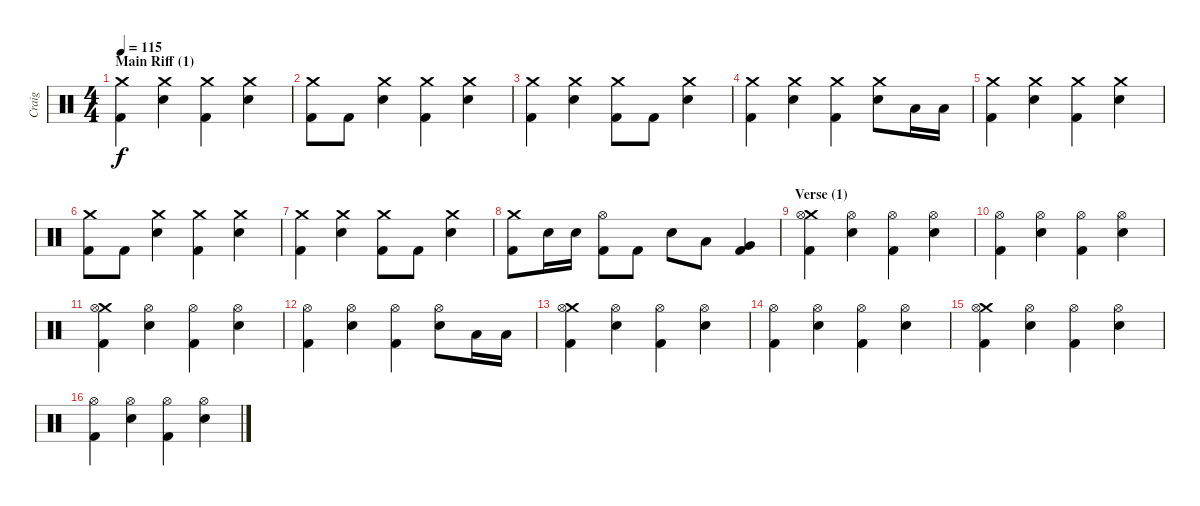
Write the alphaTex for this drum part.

\track ("Craig" "Craig") {instrument percussion}
\staff {score}
\articulation defaults
\ts (4 4)
\section ("" "Main Riff (1)")
\tempo 115
\clef neutral
\ks c
("Crash medium (hit)" "Kick (hit) 2").4{dy f} ("Crash medium (hit)" "Electric Snare (hit)").4 ("Crash medium (hit)" "Kick (hit) 2").4 ("Crash medium (hit)" "Electric Snare (hit)").4 |
("Crash medium (hit)" "Kick (hit) 2").8 "Kick (hit) 2".8 ("Crash medium (hit)" "Electric Snare (hit)").4 ("Crash medium (hit)" "Kick (hit) 2").4 ("Crash medium (hit)" "Electric Snare (hit)").4 |
("Crash medium (hit)" "Kick (hit) 2").4 ("Crash medium (hit)" "Electric Snare (hit)").4 ("Crash medium (hit)" "Kick (hit) 2").8 "Kick (hit) 2".8 ("Crash medium (hit)" "Electric Snare (hit)").4 |
("Crash medium (hit)" "Kick (hit) 2").4 ("Crash medium (hit)" "Electric Snare (hit)").4 ("Crash medium (hit)" "Kick (hit) 2").4 ("Crash medium (hit)" "Electric Snare (hit)").8 "Low Floor Tom (hit)".16 "Low Floor Tom (hit)".16 |
("Crash medium (hit)" "Kick (hit) 2").4 ("Crash medium (hit)" "Electric Snare (hit)").4 ("Crash medium (hit)" "Kick (hit) 2").4 ("Crash medium (hit)" "Electric Snare (hit)").4 |
("Crash medium (hit)" "Kick (hit) 2").8 "Kick (hit) 2".8 ("Crash medium (hit)" "Electric Snare (hit)").4 ("Crash medium (hit)" "Kick (hit) 2").4 ("Crash medium (hit)" "Electric Snare (hit)").4 |
("Crash medium (hit)" "Kick (hit) 2").4 ("Crash medium (hit)" "Electric Snare (hit)").4 ("Crash medium (hit)" "Kick (hit) 2").8 "Kick (hit) 2".8 ("Crash medium (hit)" "Electric Snare (hit)").4 |
("Crash medium (hit)" "Kick (hit) 2").8 "Electric Snare (hit)".16 "Electric Snare (hit)".16 ("Hi-Hat (open)" "Kick (hit) 2").8 "Kick (hit) 2".8 "Electric Snare (hit)".8 "Low Tom (hit)".8 ("Very Low Tom (hit)" "Kick (hit) 2").4 |
\section ("" "Verse (1)")
("Crash medium (hit)" "Hi-Hat (open)" "Kick (hit) 2").4 ("Hi-Hat (open)" "Electric Snare (hit)").4 ("Hi-Hat (open)" "Kick (hit) 2").4 ("Hi-Hat (open)" "Electric Snare (hit)").4 |
("Hi-Hat (open)" "Kick (hit) 2").4 ("Hi-Hat (open)" "Electric Snare (hit)").4 ("Hi-Hat (open)" "Kick (hit) 2").4 ("Hi-Hat (open)" "Electric Snare (hit)").4 |
("Crash medium (hit)" "Hi-Hat (open)" "Kick (hit) 2").4 ("Hi-Hat (open)" "Electric Snare (hit)").4 ("Hi-Hat (open)" "Kick (hit) 2").4 ("Hi-Hat (open)" "Electric Snare (hit)").4 |
("Hi-Hat (open)" "Kick (hit) 2").4 ("Hi-Hat (open)" "Electric Snare (hit)").4 ("Hi-Hat (open)" "Kick (hit) 2").4 ("Hi-Hat (open)" "Electric Snare (hit)").8 "Low Floor Tom (hit)".16 "Low Floor Tom (hit)".16 |
("Crash medium (hit)" "Hi-Hat (open)" "Kick (hit) 2").4 ("Hi-Hat (open)" "Electric Snare (hit)").4 ("Hi-Hat (open)" "Kick (hit) 2").4 ("Hi-Hat (open)" "Electric Snare (hit)").4 |
("Hi-Hat (open)" "Kick (hit) 2").4 ("Hi-Hat (open)" "Electric Snare (hit)").4 ("Hi-Hat (open)" "Kick (hit) 2").4 ("Hi-Hat (open)" "Electric Snare (hit)").4 |
("Crash medium (hit)" "Hi-Hat (open)" "Kick (hit) 2").4 ("Hi-Hat (open)" "Electric Snare (hit)").4 ("Hi-Hat (open)" "Kick (hit) 2").4 ("Hi-Hat (open)" "Electric Snare (hit)").4 |
("Hi-Hat (open)" "Kick (hit) 2").4 ("Hi-Hat (open)" "Electric Snare (hit)").4 ("Hi-Hat (open)" "Kick (hit) 2").4 ("Hi-Hat (open)" "Electric Snare (hit)").4
